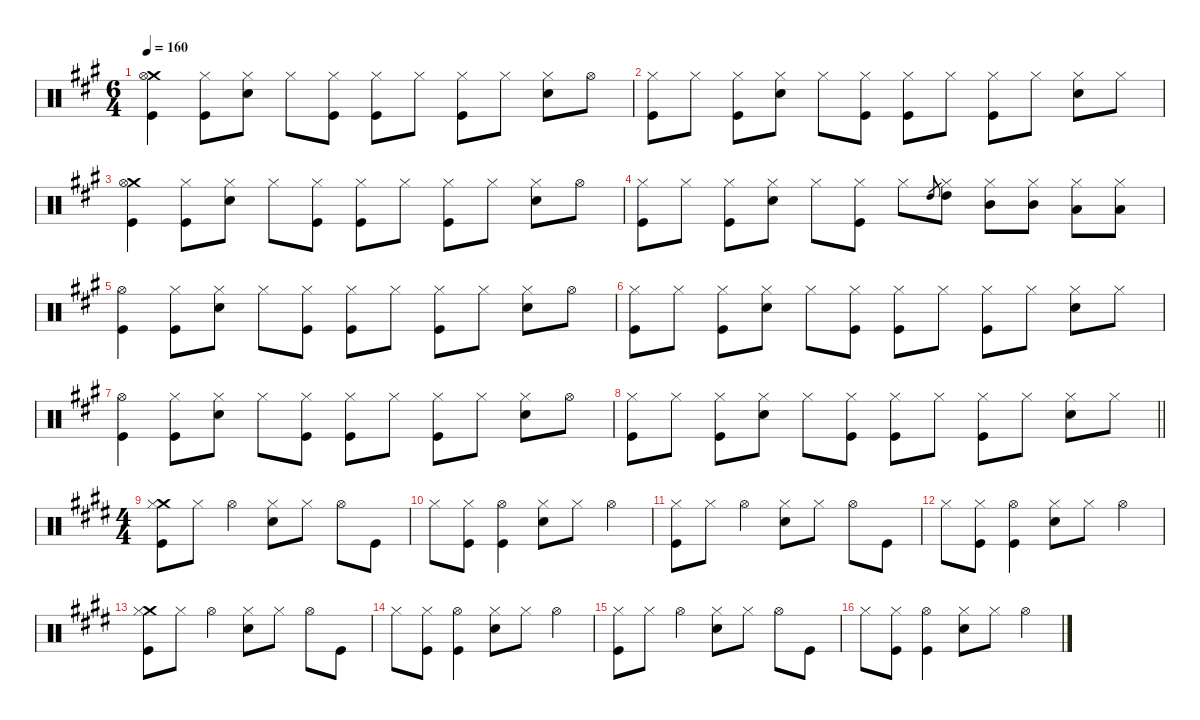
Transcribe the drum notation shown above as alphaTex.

\defaultSystemsLayout 4
\hideDynamics
\bracketExtendMode nobrackets
\singleTrackTrackNamePolicy hidden
\multiTrackTrackNamePolicy hidden
\firstSystemTrackNameMode fullname
\firstSystemTrackNameOrientation horizontal
\otherSystemsTrackNameOrientation horizontal
\track ("Drums" "drm.") {instrument percussion}
\staff {score}
\articulation defaults
\ts (6 4)
\tempo 160
\clef neutral
\ks f#minor
("Crash medium (hit)"{acc forcenatural} "Hi-Hat (open)"{acc forcenatural} "Kick (hit)"{acc forcenatural}).4{dy f beam Down} ("Hi-Hat (closed)"{acc forcenatural} "Kick (hit)"{acc forcenatural}).8{beam Down} ("Hi-Hat (closed)"{acc forcenatural} "Snare (hit) 2"{acc forcenatural}).8{beam Down} "Hi-Hat (closed)"{acc forcenatural}.8{beam Down} ("Hi-Hat (closed)"{acc forcenatural} "Kick (hit)"{acc forcenatural}).8{beam Down} ("Hi-Hat (closed)"{acc forcenatural} "Kick (hit)"{acc forcenatural}).8{beam Down} "Hi-Hat (closed)"{acc forcenatural}.8{beam Down} ("Hi-Hat (closed)"{acc forcenatural} "Kick (hit)"{acc forcenatural}).8{beam Down} "Hi-Hat (closed)"{acc forcenatural}.8{beam Down} ("Hi-Hat (closed)"{acc forcenatural} "Snare (hit) 2"{acc forcenatural}).8{beam Down} "Hi-Hat (open)"{acc forcenatural}.8{beam Down} |
("Hi-Hat (closed)"{acc forcenatural} "Kick (hit)"{acc forcenatural}).8{beam Down} "Hi-Hat (closed)"{acc forcenatural}.8{beam Down} ("Hi-Hat (closed)"{acc forcenatural} "Kick (hit)"{acc forcenatural}).8{beam Down} ("Hi-Hat (closed)"{acc forcenatural} "Snare (hit) 2"{acc forcenatural}).8{beam Down} "Hi-Hat (closed)"{acc forcenatural}.8{beam Down} ("Hi-Hat (closed)"{acc forcenatural} "Kick (hit)"{acc forcenatural}).8{beam Down} ("Hi-Hat (closed)"{acc forcenatural} "Kick (hit)"{acc forcenatural}).8{beam Down} "Hi-Hat (closed)"{acc forcenatural}.8{beam Down} ("Hi-Hat (closed)"{acc forcenatural} "Kick (hit)"{acc forcenatural}).8{beam Down} "Hi-Hat (closed)"{acc forcenatural}.8{beam Down} ("Hi-Hat (closed)"{acc forcenatural} "Snare (hit) 2"{acc forcenatural}).8{beam Down} "Hi-Hat (closed)"{acc forcenatural}.8{beam Down} |
("Crash medium (hit)"{acc forcenatural} "Hi-Hat (open)"{acc forcenatural} "Kick (hit)"{acc forcenatural}).4{beam Down} ("Hi-Hat (closed)"{acc forcenatural} "Kick (hit)"{acc forcenatural}).8{beam Down} ("Hi-Hat (closed)"{acc forcenatural} "Snare (hit) 2"{acc forcenatural}).8{beam Down} "Hi-Hat (closed)"{acc forcenatural}.8{beam Down} ("Hi-Hat (closed)"{acc forcenatural} "Kick (hit)"{acc forcenatural}).8{beam Down} ("Hi-Hat (closed)"{acc forcenatural} "Kick (hit)"{acc forcenatural}).8{beam Down} "Hi-Hat (closed)"{acc forcenatural}.8{beam Down} ("Hi-Hat (closed)"{acc forcenatural} "Kick (hit)"{acc forcenatural}).8{beam Down} "Hi-Hat (closed)"{acc forcenatural}.8{beam Down} ("Hi-Hat (closed)"{acc forcenatural} "Snare (hit) 2"{acc forcenatural}).8{beam Down} "Hi-Hat (open)"{acc forcenatural}.8{beam Down} |
("Hi-Hat (closed)"{acc forcenatural} "Kick (hit)"{acc forcenatural}).8{beam Down} "Hi-Hat (closed)"{acc forcenatural}.8{beam Down} ("Hi-Hat (closed)"{acc forcenatural} "Kick (hit)"{acc forcenatural}).8{beam Down} ("Hi-Hat (closed)"{acc forcenatural} "Snare (hit) 2"{acc forcenatural}).8{beam Down} "Hi-Hat (closed)"{acc forcenatural}.8{beam Down} ("Hi-Hat (closed)"{acc forcenatural} "Kick (hit)"{acc forcenatural}).8{beam Down} "Hi-Hat (closed)"{acc forcenatural}.8{beam Down} "High Tom (hit)"{acc forcenatural}.8{gr dy mf beam Up} ("Hi-Hat (closed)"{acc forcenatural} "High Tom (hit)"{acc forcenatural}).8{dy f beam Down} ("Hi-Hat (closed)"{acc forcenatural} "Mid Tom (hit)"{acc forcenatural}).8{beam Down} ("Hi-Hat (closed)"{acc forcenatural} "Mid Tom (hit)"{acc forcenatural}).8{beam Down} ("Hi-Hat (closed)"{acc forcenatural} "Low Tom (hit)"{acc forcenatural}).8{beam Down} ("Hi-Hat (closed)"{acc forcenatural} "Low Tom (hit)"{acc forcenatural}).8{beam Down} |
("Hi-Hat (open)"{acc forcenatural} "Kick (hit)"{acc forcenatural}).4{beam Down} ("Hi-Hat (closed)"{acc forcenatural} "Kick (hit)"{acc forcenatural}).8{beam Down} ("Hi-Hat (closed)"{acc forcenatural} "Snare (hit) 2"{acc forcenatural}).8{beam Down} "Hi-Hat (closed)"{acc forcenatural}.8{beam Down} ("Hi-Hat (closed)"{acc forcenatural} "Kick (hit)"{acc forcenatural}).8{beam Down} ("Hi-Hat (closed)"{acc forcenatural} "Kick (hit)"{acc forcenatural}).8{beam Down} "Hi-Hat (closed)"{acc forcenatural}.8{beam Down} ("Hi-Hat (closed)"{acc forcenatural} "Kick (hit)"{acc forcenatural}).8{beam Down} "Hi-Hat (closed)"{acc forcenatural}.8{beam Down} ("Hi-Hat (closed)"{acc forcenatural} "Snare (hit) 2"{acc forcenatural}).8{beam Down} "Hi-Hat (open)"{acc forcenatural}.8{beam Down} |
("Hi-Hat (closed)"{acc forcenatural} "Kick (hit)"{acc forcenatural}).8{beam Down} "Hi-Hat (closed)"{acc forcenatural}.8{beam Down} ("Hi-Hat (closed)"{acc forcenatural} "Kick (hit)"{acc forcenatural}).8{beam Down} ("Hi-Hat (closed)"{acc forcenatural} "Snare (hit) 2"{acc forcenatural}).8{beam Down} "Hi-Hat (closed)"{acc forcenatural}.8{beam Down} ("Hi-Hat (closed)"{acc forcenatural} "Kick (hit)"{acc forcenatural}).8{beam Down} ("Hi-Hat (closed)"{acc forcenatural} "Kick (hit)"{acc forcenatural}).8{beam Down} "Hi-Hat (closed)"{acc forcenatural}.8{beam Down} ("Hi-Hat (closed)"{acc forcenatural} "Kick (hit)"{acc forcenatural}).8{beam Down} "Hi-Hat (closed)"{acc forcenatural}.8{beam Down} ("Hi-Hat (closed)"{acc forcenatural} "Snare (hit) 2"{acc forcenatural}).8{beam Down} "Hi-Hat (closed)"{acc forcenatural}.8{beam Down} |
("Hi-Hat (open)"{acc forcenatural} "Kick (hit)"{acc forcenatural}).4{beam Down} ("Hi-Hat (closed)"{acc forcenatural} "Kick (hit)"{acc forcenatural}).8{beam Down} ("Hi-Hat (closed)"{acc forcenatural} "Snare (hit) 2"{acc forcenatural}).8{beam Down} "Hi-Hat (closed)"{acc forcenatural}.8{beam Down} ("Hi-Hat (closed)"{acc forcenatural} "Kick (hit)"{acc forcenatural}).8{beam Down} ("Hi-Hat (closed)"{acc forcenatural} "Kick (hit)"{acc forcenatural}).8{beam Down} "Hi-Hat (closed)"{acc forcenatural}.8{beam Down} ("Hi-Hat (closed)"{acc forcenatural} "Kick (hit)"{acc forcenatural}).8{beam Down} "Hi-Hat (closed)"{acc forcenatural}.8{beam Down} ("Hi-Hat (closed)"{acc forcenatural} "Snare (hit) 2"{acc forcenatural}).8{beam Down} "Hi-Hat (open)"{acc forcenatural}.8{beam Down} |
\barLineRight lightlight
("Hi-Hat (closed)"{acc forcenatural} "Kick (hit)"{acc forcenatural}).8{beam Down} "Hi-Hat (closed)"{acc forcenatural}.8{beam Down} ("Hi-Hat (closed)"{acc forcenatural} "Kick (hit)"{acc forcenatural}).8{beam Down} ("Hi-Hat (closed)"{acc forcenatural} "Snare (hit) 2"{acc forcenatural}).8{beam Down} "Hi-Hat (closed)"{acc forcenatural}.8{beam Down} ("Hi-Hat (closed)"{acc forcenatural} "Kick (hit)"{acc forcenatural}).8{beam Down} ("Hi-Hat (closed)"{acc forcenatural} "Kick (hit)"{acc forcenatural}).8{beam Down} "Hi-Hat (closed)"{acc forcenatural}.8{beam Down} ("Hi-Hat (closed)"{acc forcenatural} "Kick (hit)"{acc forcenatural}).8{beam Down} "Hi-Hat (closed)"{acc forcenatural}.8{beam Down} ("Hi-Hat (closed)"{acc forcenatural} "Snare (hit) 2"{acc forcenatural}).8{beam Down} "Hi-Hat (closed)"{acc forcenatural}.8{beam Down} |
\ts (4 4)
\beaming (8 2 2 2 2)
\ks c#minor
("Crash medium (hit)"{acc forcenatural} "Hi-Hat (closed)"{acc forcenatural} "Kick (hit)"{acc forcenatural}).8{beam Down} "Hi-Hat (closed)"{acc forcenatural}.8{dy mf beam Down} "Hi-Hat (open)"{acc forcenatural}.4{dy f beam Down} ("Hi-Hat (closed)"{acc forcenatural} "Snare (hit) 2"{acc forcenatural}).8{beam Down} "Hi-Hat (closed)"{acc forcenatural}.8{dy mf beam Down} "Hi-Hat (open)"{acc forcenatural}.8{dy f beam Down} "Kick (hit)"{acc forcenatural}.8{beam Down} |
"Hi-Hat (closed)"{acc forcenatural}.8{beam Down} ("Hi-Hat (closed)"{acc forcenatural} "Kick (hit)"{acc forcenatural}).8{dy mf beam Down} ("Hi-Hat (open)"{acc forcenatural} "Kick (hit)"{acc forcenatural}).4{dy f beam Down} ("Hi-Hat (closed)"{acc forcenatural} "Snare (hit) 2"{acc forcenatural}).8{beam Down} "Hi-Hat (closed)"{acc forcenatural}.8{dy mf beam Down} "Hi-Hat (open)"{acc forcenatural}.4{dy f beam Down} |
("Hi-Hat (closed)"{acc forcenatural} "Kick (hit)"{acc forcenatural}).8{beam Down} "Hi-Hat (closed)"{acc forcenatural}.8{dy mf beam Down} "Hi-Hat (open)"{acc forcenatural}.4{dy f beam Down} ("Hi-Hat (closed)"{acc forcenatural} "Snare (hit) 2"{acc forcenatural}).8{beam Down} "Hi-Hat (closed)"{acc forcenatural}.8{dy mf beam Down} "Hi-Hat (open)"{acc forcenatural}.8{dy f beam Down} "Kick (hit)"{acc forcenatural}.8{beam Down} |
"Hi-Hat (closed)"{acc forcenatural}.8{beam Down} ("Hi-Hat (closed)"{acc forcenatural} "Kick (hit)"{acc forcenatural}).8{dy mf beam Down} ("Hi-Hat (open)"{acc forcenatural} "Kick (hit)"{acc forcenatural}).4{dy f beam Down} ("Hi-Hat (closed)"{acc forcenatural} "Snare (hit) 2"{acc forcenatural}).8{beam Down} "Hi-Hat (closed)"{acc forcenatural}.8{dy mf beam Down} "Hi-Hat (open)"{acc forcenatural}.4{dy f beam Down} |
("Crash medium (hit)"{acc forcenatural} "Hi-Hat (closed)"{acc forcenatural} "Kick (hit)"{acc forcenatural}).8{beam Down} "Hi-Hat (closed)"{acc forcenatural}.8{dy mf beam Down} "Hi-Hat (open)"{acc forcenatural}.4{dy f beam Down} ("Hi-Hat (closed)"{acc forcenatural} "Snare (hit) 2"{acc forcenatural}).8{beam Down} "Hi-Hat (closed)"{acc forcenatural}.8{dy mf beam Down} "Hi-Hat (open)"{acc forcenatural}.8{dy f beam Down} "Kick (hit)"{acc forcenatural}.8{beam Down} |
"Hi-Hat (closed)"{acc forcenatural}.8{beam Down} ("Hi-Hat (closed)"{acc forcenatural} "Kick (hit)"{acc forcenatural}).8{dy mf beam Down} ("Hi-Hat (open)"{acc forcenatural} "Kick (hit)"{acc forcenatural}).4{dy f beam Down} ("Hi-Hat (closed)"{acc forcenatural} "Snare (hit) 2"{acc forcenatural}).8{beam Down} "Hi-Hat (closed)"{acc forcenatural}.8{dy mf beam Down} "Hi-Hat (open)"{acc forcenatural}.4{dy f beam Down} |
("Hi-Hat (closed)"{acc forcenatural} "Kick (hit)"{acc forcenatural}).8{beam Down} "Hi-Hat (closed)"{acc forcenatural}.8{dy mf beam Down} "Hi-Hat (open)"{acc forcenatural}.4{dy f beam Down} ("Hi-Hat (closed)"{acc forcenatural} "Snare (hit) 2"{acc forcenatural}).8{beam Down} "Hi-Hat (closed)"{acc forcenatural}.8{dy mf beam Down} "Hi-Hat (open)"{acc forcenatural}.8{dy f beam Down} "Kick (hit)"{acc forcenatural}.8{beam Down} |
"Hi-Hat (closed)"{acc forcenatural}.8{beam Down} ("Hi-Hat (closed)"{acc forcenatural} "Kick (hit)"{acc forcenatural}).8{dy mf beam Down} ("Hi-Hat (open)"{acc forcenatural} "Kick (hit)"{acc forcenatural}).4{dy f beam Down} ("Hi-Hat (closed)"{acc forcenatural} "Snare (hit) 2"{acc forcenatural}).8{beam Down} "Hi-Hat (closed)"{acc forcenatural}.8{dy mf beam Down} "Hi-Hat (open)"{acc forcenatural}.4{dy f beam Down}
